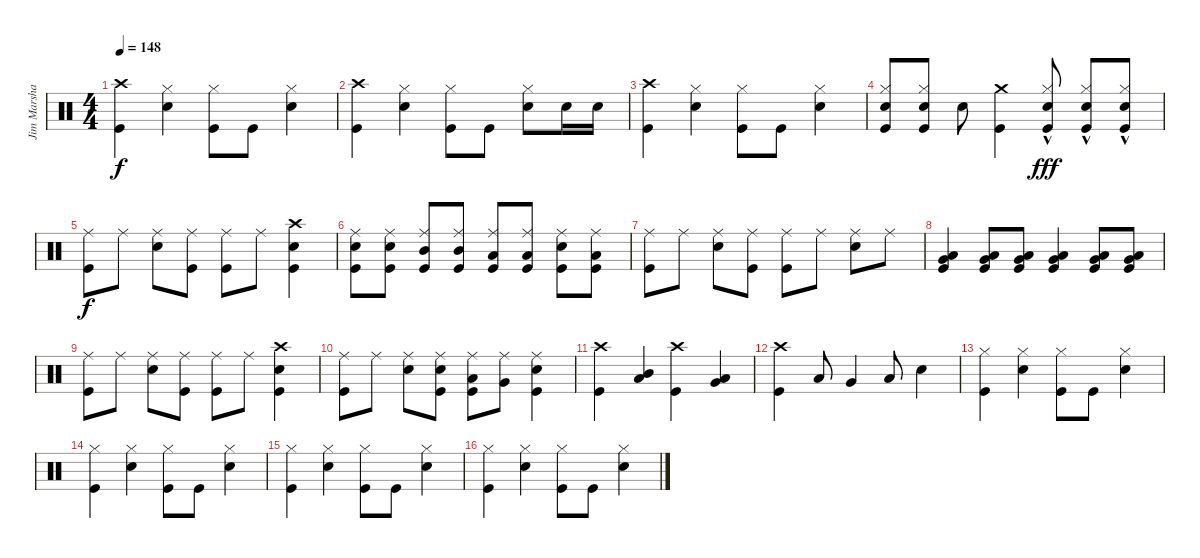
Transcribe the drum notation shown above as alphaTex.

\track ("Jim Marshall Drums" "Jim Marsha") {instrument percussion}
\staff {score}
\articulation defaults
\ts (4 4)
\tempo 148
\clef neutral
\ks c
("Crash high (hit)" "Kick (hit)").4{dy f} ("Hi-Hat (closed)" "Snare (hit) 2").4 ("Hi-Hat (closed)" "Kick (hit)").8 "Kick (hit)".8 ("Hi-Hat (closed)" "Snare (hit) 2").4 |
("Crash high (hit)" "Kick (hit)").4 ("Hi-Hat (closed)" "Snare (hit) 2").4 ("Hi-Hat (closed)" "Kick (hit)").8 "Kick (hit)".8 ("Hi-Hat (closed)" "Snare (hit) 2").8 "Snare (hit) 2".16 "Snare (hit) 2".16 |
("Crash high (hit)" "Kick (hit)").4 ("Hi-Hat (closed)" "Snare (hit) 2").4 ("Hi-Hat (closed)" "Kick (hit)").8 "Kick (hit)".8 ("Hi-Hat (closed)" "Snare (hit) 2").4 |
("Hi-Hat (closed)" "Snare (hit) 2" "Kick (hit)").8 ("Hi-Hat (closed)" "Snare (hit) 2" "Kick (hit)").8 "Snare (hit) 2".8 ("Crash medium (hit)" "Kick (hit)").4 ("Hi-Hat (closed)"{hac} "Snare (hit) 2" "Kick (hit)").8{dy fff} ("Hi-Hat (closed)"{hac} "Snare (hit) 2" "Kick (hit)").8 ("Hi-Hat (closed)"{hac} "Snare (hit) 2" "Kick (hit)").8 |
("Ride (middle)" "Kick (hit)").8{dy f} "Ride (middle)".8 ("Ride (middle)" "Snare (hit) 2").8 ("Ride (middle)" "Kick (hit)").8 ("Ride (middle)" "Kick (hit)").8 "Ride (middle)".8 ("Crash high (hit)" "Snare (hit) 2" "Kick (hit)").4 |
("Ride (middle)" "Snare (hit) 2" "Kick (hit)").8 ("Ride (middle)" "Snare (hit) 2" "Kick (hit)").8 ("Ride (middle)" "Mid Tom (hit)" "Kick (hit)").8 ("Ride (middle)" "Mid Tom (hit)" "Kick (hit)").8 ("Ride (middle)" "Low Tom (hit)" "Kick (hit)").8 ("Ride (middle)" "Low Tom (hit)" "Kick (hit)").8 ("Ride (middle)" "Snare (hit) 2" "Kick (hit)").8 ("Ride (middle)" "Low Tom (hit)" "Kick (hit)").8 |
("Ride (middle)" "Kick (hit)").8 "Ride (middle)".8 ("Ride (middle)" "Snare (hit) 2").8 ("Ride (middle)" "Kick (hit)").8 ("Ride (middle)" "Kick (hit)").8 "Ride (middle)".8 ("Ride (middle)" "Snare (hit) 2").8 "Ride (middle)".8 |
("Very Low Tom (hit)" "Low Floor Tom (hit)" "Kick (hit)").4 ("Very Low Tom (hit)" "Low Floor Tom (hit)" "Kick (hit)").8 ("Very Low Tom (hit)" "Low Floor Tom (hit)" "Kick (hit)").8 ("Very Low Tom (hit)" "Low Floor Tom (hit)" "Kick (hit)").4 ("Very Low Tom (hit)" "Low Floor Tom (hit)" "Kick (hit)").8 ("Very Low Tom (hit)" "Low Floor Tom (hit)" "Kick (hit)").8 |
("Ride (middle)" "Kick (hit)").8 "Ride (middle)".8 ("Ride (middle)" "Snare (hit) 2").8 ("Ride (middle)" "Kick (hit)").8 ("Ride (middle)" "Kick (hit)").8 "Ride (middle)".8 ("Crash high (hit)" "Snare (hit) 2" "Kick (hit)").4 |
("Ride (middle)" "Kick (hit)").8 "Ride (middle)".8 ("Ride (middle)" "Snare (hit) 2").8 ("Ride (middle)" "Snare (hit) 2" "Kick (hit)").8 ("Ride (middle)" "Low Tom (hit)" "Kick (hit)").8 ("Ride (middle)" "Very Low Tom (hit)").8 ("Ride (middle)" "Snare (hit) 2" "Kick (hit)").4 |
("Crash high (hit)" "Kick (hit)").4 ("Mid Tom (hit)" "Low Tom (hit)").4 ("Crash high (hit)" "Kick (hit)").4 ("Low Tom (hit)" "Very Low Tom (hit)").4 |
("Crash high (hit)" "Kick (hit)").4 "Low Tom (hit)".8 "Very Low Tom (hit)".4 "Low Tom (hit)".8 "Snare (hit) 2".4 |
("Hi-Hat (closed)" "Kick (hit)").4 ("Hi-Hat (closed)" "Snare (hit) 2").4 ("Hi-Hat (closed)" "Kick (hit)").8 "Kick (hit)".8 ("Hi-Hat (closed)" "Snare (hit) 2").4 |
("Hi-Hat (closed)" "Kick (hit)").4 ("Hi-Hat (closed)" "Snare (hit) 2").4 ("Hi-Hat (closed)" "Kick (hit)").8 "Kick (hit)".8 ("Hi-Hat (closed)" "Snare (hit) 2").4 |
("Hi-Hat (closed)" "Kick (hit)").4 ("Hi-Hat (closed)" "Snare (hit) 2").4 ("Hi-Hat (closed)" "Kick (hit)").8 "Kick (hit)".8 ("Hi-Hat (closed)" "Snare (hit) 2").4 |
("Hi-Hat (closed)" "Kick (hit)").4 ("Hi-Hat (closed)" "Snare (hit) 2").4 ("Hi-Hat (closed)" "Kick (hit)").8 "Kick (hit)".8 ("Hi-Hat (closed)" "Snare (hit) 2").4
